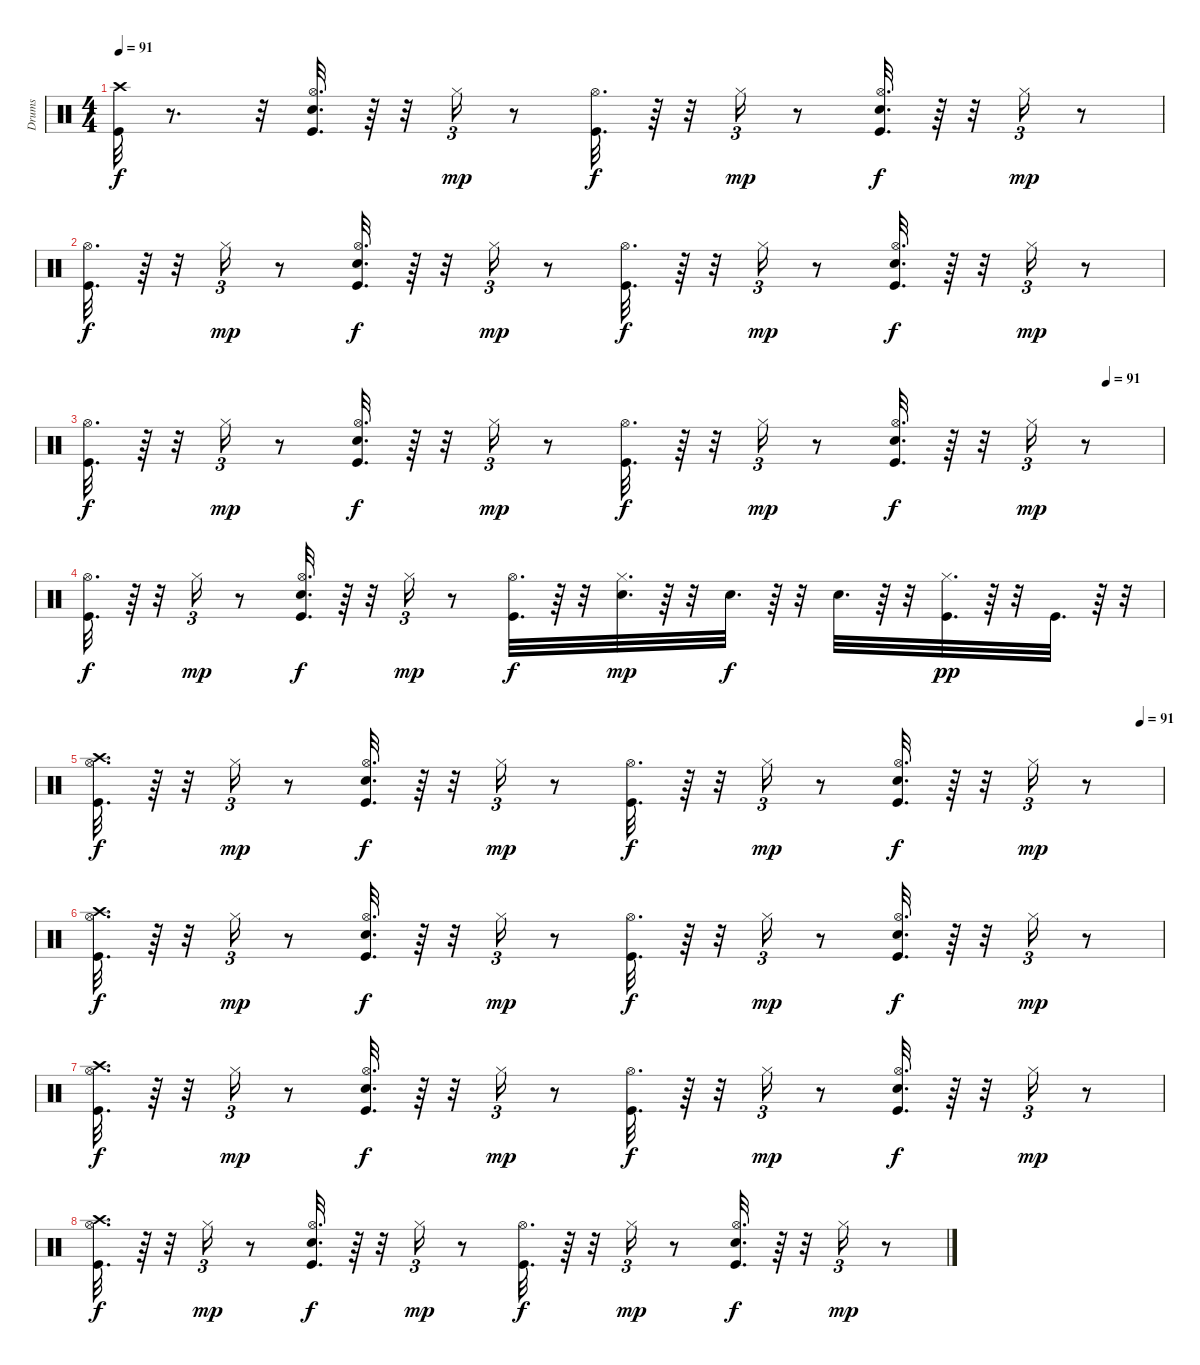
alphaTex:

\track ("Drums" "Drums") {instrument percussion}
\staff {score}
\articulation defaults
\ts (4 4)
\tempo 91
\clef neutral
\ks c
("Crash high (hit)" "Kick (hit)").32{dy f} r.8{d} r.32 ("Kick (hit)" "Hi-Hat (open)" "Snare (hit) 2").32{d} r.64 r.32 "Hi-Hat (closed)".16{tu (3 2) dy mp} r.8 ("Hi-Hat (open)" "Kick (hit)").32{d dy f} r.64 r.32 "Hi-Hat (closed)".16{tu (3 2) dy mp} r.8 ("Kick (hit)" "Hi-Hat (open)" "Snare (hit) 2").32{d dy f} r.64 r.32 "Hi-Hat (closed)".16{tu (3 2) dy mp} r.8 |
("Hi-Hat (open)" "Kick (hit)").32{d dy f} r.64 r.32 "Hi-Hat (closed)".16{tu (3 2) dy mp} r.8 ("Hi-Hat (open)" "Kick (hit)" "Snare (hit) 2").32{d dy f} r.64 r.32 "Hi-Hat (closed)".16{tu (3 2) dy mp} r.8 ("Kick (hit)" "Hi-Hat (open)").32{d dy f} r.64 r.32 "Hi-Hat (closed)".16{tu (3 2) dy mp} r.8 ("Kick (hit)" "Snare (hit) 2" "Hi-Hat (open)").32{d dy f} r.64 r.32 "Hi-Hat (closed)".16{tu (3 2) dy mp} r.8 |
\tempo (91 0.9479166666666666)
("Kick (hit)" "Hi-Hat (open)").32{d dy f} r.64 r.32 "Hi-Hat (closed)".16{tu (3 2) dy mp} r.8 ("Kick (hit)" "Hi-Hat (open)" "Snare (hit) 2").32{d dy f} r.64 r.32 "Hi-Hat (closed)".16{tu (3 2) dy mp} r.8 ("Hi-Hat (open)" "Kick (hit)").32{d dy f} r.64 r.32 "Hi-Hat (closed)".16{tu (3 2) dy mp} r.8 ("Kick (hit)" "Snare (hit) 2" "Hi-Hat (open)").32{d dy f} r.64 r.32 "Hi-Hat (closed)".16{tu (3 2) dy mp} r.8 |
("Hi-Hat (open)" "Kick (hit)").32{d dy f} r.64 r.32 "Hi-Hat (closed)".16{tu (3 2) dy mp} r.8 ("Kick (hit)" "Snare (hit) 2" "Hi-Hat (open)").32{d dy f} r.64 r.32 "Hi-Hat (closed)".16{tu (3 2) dy mp} r.8 ("Hi-Hat (open)" "Kick (hit)").32{d dy f} r.64 r.32 ("Hi-Hat (closed)" "Snare (hit) 2").32{d dy mp} r.64 r.32 "Snare (hit) 2".32{d dy f} r.64 r.32 "Snare (hit) 2".32{d} r.64 r.32 ("Hi-Hat (closed)" "Kick (hit)").32{d dy pp} r.64 r.32 "Kick (hit)".32{d} r.64 r.32 |
\tempo (91 0.9791666666666666)
("Crash high (hit)" "Kick (hit)" "Hi-Hat (open)").32{d dy f} r.64 r.32 "Hi-Hat (closed)".16{tu (3 2) dy mp} r.8 ("Snare (hit) 2" "Kick (hit)" "Hi-Hat (open)").32{d dy f} r.64 r.32 "Hi-Hat (closed)".16{tu (3 2) dy mp} r.8 ("Kick (hit)" "Hi-Hat (open)").32{d dy f} r.64 r.32 "Hi-Hat (closed)".16{tu (3 2) dy mp} r.8 ("Snare (hit) 2" "Kick (hit)" "Hi-Hat (open)").32{d dy f} r.64 r.32 "Hi-Hat (closed)".16{tu (3 2) dy mp} r.8 |
("Hi-Hat (open)" "Crash high (hit)" "Kick (hit)").32{d dy f} r.64 r.32 "Hi-Hat (closed)".16{tu (3 2) dy mp} r.8 ("Hi-Hat (open)" "Snare (hit) 2" "Kick (hit)").32{d dy f} r.64 r.32 "Hi-Hat (closed)".16{tu (3 2) dy mp} r.8 ("Hi-Hat (open)" "Kick (hit)").32{d dy f} r.64 r.32 "Hi-Hat (closed)".16{tu (3 2) dy mp} r.8 ("Hi-Hat (open)" "Snare (hit) 2" "Kick (hit)").32{d dy f} r.64 r.32 "Hi-Hat (closed)".16{tu (3 2) dy mp} r.8 |
("Crash high (hit)" "Kick (hit)" "Hi-Hat (open)").32{d dy f} r.64 r.32 "Hi-Hat (closed)".16{tu (3 2) dy mp} r.8 ("Snare (hit) 2" "Kick (hit)" "Hi-Hat (open)").32{d dy f} r.64 r.32 "Hi-Hat (closed)".16{tu (3 2) dy mp} r.8 ("Kick (hit)" "Hi-Hat (open)").32{d dy f} r.64 r.32 "Hi-Hat (closed)".16{tu (3 2) dy mp} r.8 ("Snare (hit) 2" "Kick (hit)" "Hi-Hat (open)").32{d dy f} r.64 r.32 "Hi-Hat (closed)".16{tu (3 2) dy mp} r.8 |
("Hi-Hat (open)" "Crash high (hit)" "Kick (hit)").32{d dy f} r.64 r.32 "Hi-Hat (closed)".16{tu (3 2) dy mp} r.8 ("Hi-Hat (open)" "Snare (hit) 2" "Kick (hit)").32{d dy f} r.64 r.32 "Hi-Hat (closed)".16{tu (3 2) dy mp} r.8 ("Hi-Hat (open)" "Kick (hit)").32{d dy f} r.64 r.32 "Hi-Hat (closed)".16{tu (3 2) dy mp} r.8 ("Hi-Hat (open)" "Snare (hit) 2" "Kick (hit)").32{d dy f} r.64 r.32 "Hi-Hat (closed)".16{tu (3 2) dy mp} r.8
